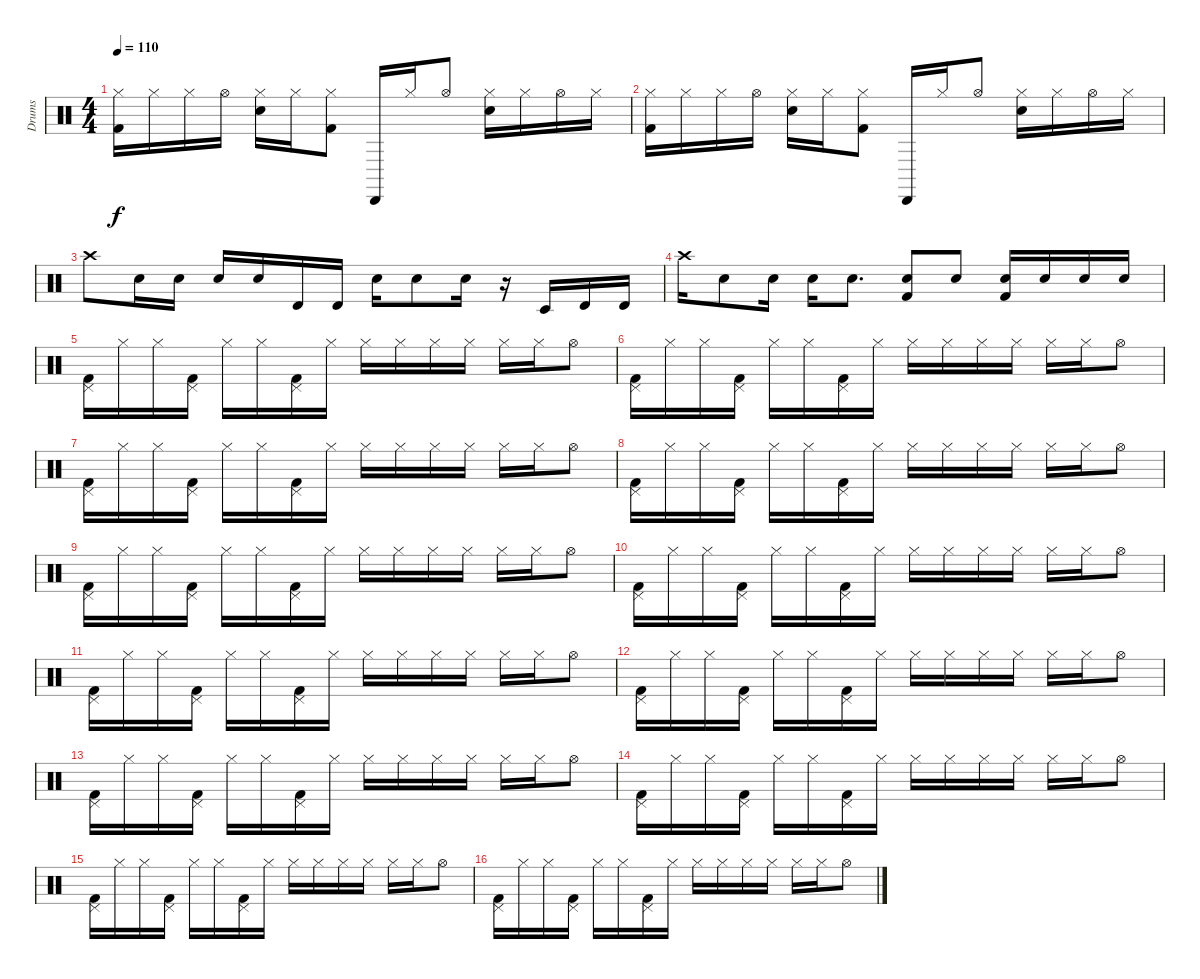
\track ("Drums" "Drums") {instrument percussion}
\staff {score}
\articulation defaults
\ts (4 4)
\tempo 110
\clef neutral
\ks c
("Kick (hit) 2" "Hi-Hat (closed)").16{dy f} "Hi-Hat (closed)".16 "Hi-Hat (closed)".16 "Hi-Hat (open)".16 ("Snare (hit) 2" "Hi-Hat (closed)").16 "Hi-Hat (closed)".16 ("Kick (hit) 2" "Hi-Hat (closed)").8 "Cabasa (hit)".16 "Hi-Hat (closed)".16 "Hi-Hat (open)".8 ("Snare (hit) 2" "Hi-Hat (closed)").16 "Hi-Hat (closed)".16 "Hi-Hat (open)".16 "Hi-Hat (closed)".16 |
("Kick (hit) 2" "Hi-Hat (closed)").16 "Hi-Hat (closed)".16 "Hi-Hat (closed)".16 "Hi-Hat (open)".16 ("Snare (hit) 2" "Hi-Hat (closed)").16 "Hi-Hat (closed)".16 ("Kick (hit) 2" "Hi-Hat (closed)").8 "Cabasa (hit)".16 "Hi-Hat (closed)".16 "Hi-Hat (open)".8 ("Snare (hit) 2" "Hi-Hat (closed)").16 "Hi-Hat (closed)".16 "Hi-Hat (open)".16 "Hi-Hat (closed)".16 |
"Crash high (hit)".8 "Electric Snare (hit)".16 "Electric Snare (hit)".16 "Electric Snare (hit)".16 "Electric Snare (hit)".16 "Timbale high (hit)".16 "Timbale high (hit)".16 "Electric Snare (hit)".16 "Electric Snare (hit)".8 "Electric Snare (hit)".16 r.16 "Timbale low (hit)".16 "Timbale high (hit)".16 "Timbale high (hit)".16 |
"Crash high (hit)".16 "Electric Snare (hit)".8 "Electric Snare (hit)".16 "Electric Snare (hit)".16 "Electric Snare (hit)".8{d} ("Kick (hit) 2" "Snare (hit) 2").8 "Snare (hit) 2".8 ("Kick (hit) 2" "Snare (hit) 2").16 "Snare (hit) 2".16 "Snare (hit) 2".16 "Snare (hit) 2".16 |
("Kick (hit) 2" "Pedal Hi-Hat (hit)").16 "Hi-Hat (closed)".16 "Hi-Hat (closed)".16 ("Kick (hit) 2" "Pedal Hi-Hat (hit)").16 "Hi-Hat (closed)".16 "Hi-Hat (closed)".16 ("Kick (hit) 2" "Pedal Hi-Hat (hit)").16 "Hi-Hat (closed)".16 "Hi-Hat (closed)".16 "Hi-Hat (closed)".16 "Hi-Hat (closed)".16 "Hi-Hat (closed)".16 "Hi-Hat (closed)".16 "Hi-Hat (closed)".16 "Hi-Hat (open)".8 |
("Kick (hit) 2" "Pedal Hi-Hat (hit)").16 "Hi-Hat (closed)".16 "Hi-Hat (closed)".16 ("Kick (hit) 2" "Pedal Hi-Hat (hit)").16 "Hi-Hat (closed)".16 "Hi-Hat (closed)".16 ("Kick (hit) 2" "Pedal Hi-Hat (hit)").16 "Hi-Hat (closed)".16 "Hi-Hat (closed)".16 "Hi-Hat (closed)".16 "Hi-Hat (closed)".16 "Hi-Hat (closed)".16 "Hi-Hat (closed)".16 "Hi-Hat (closed)".16 "Hi-Hat (open)".8 |
("Kick (hit) 2" "Pedal Hi-Hat (hit)").16 "Hi-Hat (closed)".16 "Hi-Hat (closed)".16 ("Kick (hit) 2" "Pedal Hi-Hat (hit)").16 "Hi-Hat (closed)".16 "Hi-Hat (closed)".16 ("Kick (hit) 2" "Pedal Hi-Hat (hit)").16 "Hi-Hat (closed)".16 "Hi-Hat (closed)".16 "Hi-Hat (closed)".16 "Hi-Hat (closed)".16 "Hi-Hat (closed)".16 "Hi-Hat (closed)".16 "Hi-Hat (closed)".16 "Hi-Hat (open)".8 |
("Kick (hit) 2" "Pedal Hi-Hat (hit)").16 "Hi-Hat (closed)".16 "Hi-Hat (closed)".16 ("Kick (hit) 2" "Pedal Hi-Hat (hit)").16 "Hi-Hat (closed)".16 "Hi-Hat (closed)".16 ("Kick (hit) 2" "Pedal Hi-Hat (hit)").16 "Hi-Hat (closed)".16 "Hi-Hat (closed)".16 "Hi-Hat (closed)".16 "Hi-Hat (closed)".16 "Hi-Hat (closed)".16 "Hi-Hat (closed)".16 "Hi-Hat (closed)".16 "Hi-Hat (open)".8 |
("Kick (hit) 2" "Pedal Hi-Hat (hit)").16 "Hi-Hat (closed)".16 "Hi-Hat (closed)".16 ("Kick (hit) 2" "Pedal Hi-Hat (hit)").16 "Hi-Hat (closed)".16 "Hi-Hat (closed)".16 ("Kick (hit) 2" "Pedal Hi-Hat (hit)").16 "Hi-Hat (closed)".16 "Hi-Hat (closed)".16 "Hi-Hat (closed)".16 "Hi-Hat (closed)".16 "Hi-Hat (closed)".16 "Hi-Hat (closed)".16 "Hi-Hat (closed)".16 "Hi-Hat (open)".8 |
("Kick (hit) 2" "Pedal Hi-Hat (hit)").16 "Hi-Hat (closed)".16 "Hi-Hat (closed)".16 ("Kick (hit) 2" "Pedal Hi-Hat (hit)").16 "Hi-Hat (closed)".16 "Hi-Hat (closed)".16 ("Kick (hit) 2" "Pedal Hi-Hat (hit)").16 "Hi-Hat (closed)".16 "Hi-Hat (closed)".16 "Hi-Hat (closed)".16 "Hi-Hat (closed)".16 "Hi-Hat (closed)".16 "Hi-Hat (closed)".16 "Hi-Hat (closed)".16 "Hi-Hat (open)".8 |
("Kick (hit) 2" "Pedal Hi-Hat (hit)").16 "Hi-Hat (closed)".16 "Hi-Hat (closed)".16 ("Kick (hit) 2" "Pedal Hi-Hat (hit)").16 "Hi-Hat (closed)".16 "Hi-Hat (closed)".16 ("Kick (hit) 2" "Pedal Hi-Hat (hit)").16 "Hi-Hat (closed)".16 "Hi-Hat (closed)".16 "Hi-Hat (closed)".16 "Hi-Hat (closed)".16 "Hi-Hat (closed)".16 "Hi-Hat (closed)".16 "Hi-Hat (closed)".16 "Hi-Hat (open)".8 |
("Kick (hit) 2" "Pedal Hi-Hat (hit)").16 "Hi-Hat (closed)".16 "Hi-Hat (closed)".16 ("Kick (hit) 2" "Pedal Hi-Hat (hit)").16 "Hi-Hat (closed)".16 "Hi-Hat (closed)".16 ("Kick (hit) 2" "Pedal Hi-Hat (hit)").16 "Hi-Hat (closed)".16 "Hi-Hat (closed)".16 "Hi-Hat (closed)".16 "Hi-Hat (closed)".16 "Hi-Hat (closed)".16 "Hi-Hat (closed)".16 "Hi-Hat (closed)".16 "Hi-Hat (open)".8 |
("Kick (hit) 2" "Pedal Hi-Hat (hit)").16 "Hi-Hat (closed)".16 "Hi-Hat (closed)".16 ("Kick (hit) 2" "Pedal Hi-Hat (hit)").16 "Hi-Hat (closed)".16 "Hi-Hat (closed)".16 ("Kick (hit) 2" "Pedal Hi-Hat (hit)").16 "Hi-Hat (closed)".16 "Hi-Hat (closed)".16 "Hi-Hat (closed)".16 "Hi-Hat (closed)".16 "Hi-Hat (closed)".16 "Hi-Hat (closed)".16 "Hi-Hat (closed)".16 "Hi-Hat (open)".8 |
("Kick (hit) 2" "Pedal Hi-Hat (hit)").16 "Hi-Hat (closed)".16 "Hi-Hat (closed)".16 ("Kick (hit) 2" "Pedal Hi-Hat (hit)").16 "Hi-Hat (closed)".16 "Hi-Hat (closed)".16 ("Kick (hit) 2" "Pedal Hi-Hat (hit)").16 "Hi-Hat (closed)".16 "Hi-Hat (closed)".16 "Hi-Hat (closed)".16 "Hi-Hat (closed)".16 "Hi-Hat (closed)".16 "Hi-Hat (closed)".16 "Hi-Hat (closed)".16 "Hi-Hat (open)".8 |
("Kick (hit) 2" "Pedal Hi-Hat (hit)").16 "Hi-Hat (closed)".16 "Hi-Hat (closed)".16 ("Kick (hit) 2" "Pedal Hi-Hat (hit)").16 "Hi-Hat (closed)".16 "Hi-Hat (closed)".16 ("Kick (hit) 2" "Pedal Hi-Hat (hit)").16 "Hi-Hat (closed)".16 "Hi-Hat (closed)".16 "Hi-Hat (closed)".16 "Hi-Hat (closed)".16 "Hi-Hat (closed)".16 "Hi-Hat (closed)".16 "Hi-Hat (closed)".16 "Hi-Hat (open)".8 |
("Kick (hit) 2" "Pedal Hi-Hat (hit)").16 "Hi-Hat (closed)".16 "Hi-Hat (closed)".16 ("Kick (hit) 2" "Pedal Hi-Hat (hit)").16 "Hi-Hat (closed)".16 "Hi-Hat (closed)".16 ("Kick (hit) 2" "Pedal Hi-Hat (hit)").16 "Hi-Hat (closed)".16 "Hi-Hat (closed)".16 "Hi-Hat (closed)".16 "Hi-Hat (closed)".16 "Hi-Hat (closed)".16 "Hi-Hat (closed)".16 "Hi-Hat (closed)".16 "Hi-Hat (open)".8
